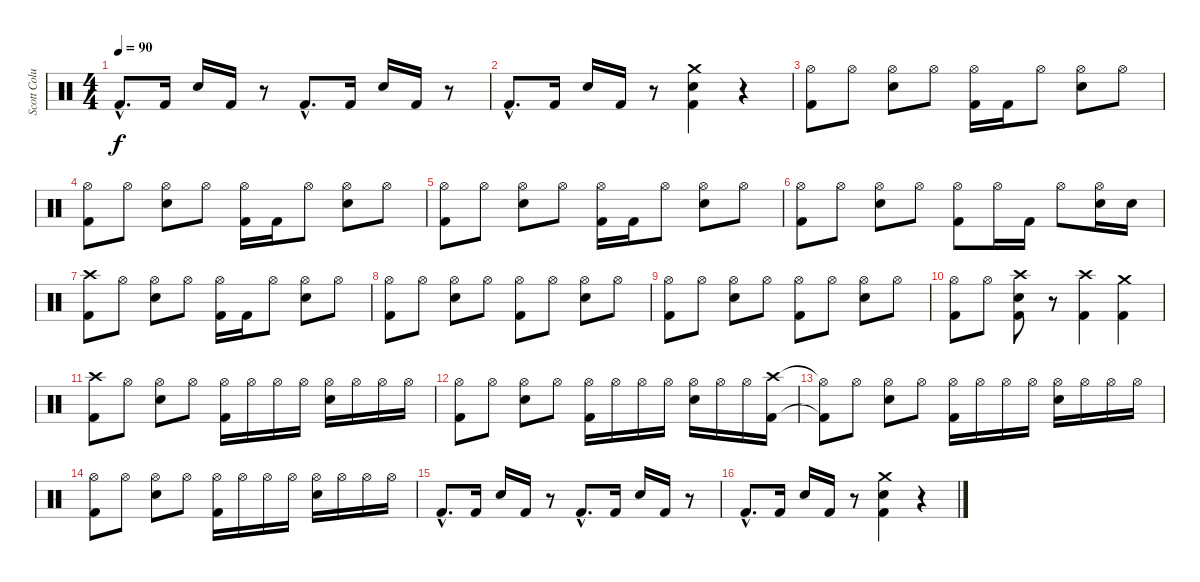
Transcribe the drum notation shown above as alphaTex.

\track ("Scott Columbus" "Scott Colu") {instrument percussion}
\staff {score}
\articulation defaults
\ts (4 4)
\tempo 90
\clef neutral
\ks c "Kick (hit) 2"{hac}.8{d dy f} "Kick (hit) 2".16 "Snare (hit) 2".16 "Kick (hit) 2".16
r.8 "Kick (hit) 2"{hac}.8{d} "Kick (hit) 2".16 "Snare (hit) 2".16 "Kick (hit) 2".16 r.8 |
"Kick (hit) 2"{hac}.8{d} "Kick (hit) 2".16 "Snare (hit) 2".16 "Kick (hit) 2".16 r.8 ("Crash medium (hit)" "Snare (hit) 2" "Kick (hit) 2").4 r.4 |
("Hi-Hat (open)" "Kick (hit) 2").8 "Hi-Hat (open)".8 ("Hi-Hat (open)" "Snare (hit) 2").8 "Hi-Hat (open)".8 ("Hi-Hat (open)" "Kick (hit) 2").16 "Kick (hit) 2".16 "Hi-Hat (open)".8 ("Hi-Hat (open)" "Snare (hit) 2").8 "Hi-Hat (open)".8 |
("Hi-Hat (open)" "Kick (hit) 2").8 "Hi-Hat (open)".8 ("Hi-Hat (open)" "Snare (hit) 2").8 "Hi-Hat (open)".8 ("Hi-Hat (open)" "Kick (hit) 2").16 "Kick (hit) 2".16 "Hi-Hat (open)".8 ("Hi-Hat (open)" "Snare (hit) 2").8 "Hi-Hat (open)".8 |
("Hi-Hat (open)" "Kick (hit) 2").8 "Hi-Hat (open)".8 ("Hi-Hat (open)" "Snare (hit) 2").8 "Hi-Hat (open)".8 ("Hi-Hat (open)" "Kick (hit) 2").16 "Kick (hit) 2".16 "Hi-Hat (open)".8 ("Hi-Hat (open)" "Snare (hit) 2").8 "Hi-Hat (open)".8 |
("Hi-Hat (open)" "Kick (hit) 2").8 "Hi-Hat (open)".8 ("Hi-Hat (open)" "Snare (hit) 2").8 "Hi-Hat (open)".8 ("Hi-Hat (open)" "Kick (hit) 2").8 "Hi-Hat (open)".16 "Kick (hit) 2".16 "Hi-Hat (open)".8 ("Hi-Hat (open)" "Snare (hit) 2").16 "Snare (hit) 2".16 |
("Crash high (hit)" "Kick (hit) 2").8 "Hi-Hat (open)".8 ("Hi-Hat (open)" "Snare (hit) 2").8 "Hi-Hat (open)".8 ("Hi-Hat (open)" "Kick (hit) 2").16 "Kick (hit) 2".16 "Hi-Hat (open)".8 ("Hi-Hat (open)" "Snare (hit) 2").8 "Hi-Hat (open)".8 |
("Hi-Hat (open)" "Kick (hit) 2").8 "Hi-Hat (open)".8 ("Hi-Hat (open)" "Snare (hit) 2").8 "Hi-Hat (open)".8 ("Hi-Hat (open)" "Kick (hit) 2").8 "Hi-Hat (open)".8 ("Hi-Hat (open)" "Snare (hit) 2").8 "Hi-Hat (open)".8 |
("Hi-Hat (open)" "Kick (hit) 2").8 "Hi-Hat (open)".8 ("Hi-Hat (open)" "Snare (hit) 2").8 "Hi-Hat (open)".8 ("Hi-Hat (open)" "Kick (hit) 2").8 "Hi-Hat (open)".8 ("Hi-Hat (open)" "Snare (hit) 2").8 "Hi-Hat (open)".8 |
("Hi-Hat (open)" "Kick (hit) 2").8 "Hi-Hat (open)".8 ("Crash high (hit)" "Snare (hit) 2" "Kick (hit) 2").8 r.8 ("Crash high (hit)" "Kick (hit) 2").4 ("Crash medium (hit)" "Kick (hit) 2").4 |
("Crash high (hit)" "Kick (hit) 2").8 "Hi-Hat (open)".8 ("Hi-Hat (open)" "Snare (hit) 2").8 "Hi-Hat (open)".8 ("Hi-Hat (open)" "Kick (hit) 2").16 "Hi-Hat (open)".16 "Hi-Hat (open)".16 "Hi-Hat (open)".16 ("Hi-Hat (open)" "Snare (hit) 2").16 "Hi-Hat (open)".16 "Hi-Hat (open)".16 "Hi-Hat (open)".16 |
("Hi-Hat (open)" "Kick (hit) 2").8 "Hi-Hat (open)".8 ("Hi-Hat (open)" "Snare (hit) 2").8 "Hi-Hat (open)".8 ("Hi-Hat (open)" "Kick (hit) 2").16 "Hi-Hat (open)".16 "Hi-Hat (open)".16 "Hi-Hat (open)".16 ("Hi-Hat (open)" "Snare (hit) 2").16 "Hi-Hat (open)".16 "Hi-Hat (open)".16 ("Crash high (hit)" "Kick (hit) 2").16 |
("Hi-Hat (open)"{t} "Kick (hit) 2"{t}).8 "Hi-Hat (open)".8 ("Hi-Hat (open)" "Snare (hit) 2").8 "Hi-Hat (open)".8 ("Hi-Hat (open)" "Kick (hit) 2").16 "Hi-Hat (open)".16 "Hi-Hat (open)".16 "Hi-Hat (open)".16 ("Hi-Hat (open)" "Snare (hit) 2").16 "Hi-Hat (open)".16 "Hi-Hat (open)".16 "Hi-Hat (open)".16 |
("Hi-Hat (open)" "Kick (hit) 2").8 "Hi-Hat (open)".8 ("Hi-Hat (open)" "Snare (hit) 2").8 "Hi-Hat (open)".8 ("Hi-Hat (open)" "Kick (hit) 2").16 "Hi-Hat (open)".16 "Hi-Hat (open)".16 "Hi-Hat (open)".16 ("Hi-Hat (open)" "Snare (hit) 2").16 "Hi-Hat (open)".16 "Hi-Hat (open)".16 "Hi-Hat (open)".16 |
"Kick (hit) 2"{hac}.8{d} "Kick (hit) 2".16 "Snare (hit) 2".16 "Kick (hit) 2".16 r.8 "Kick (hit) 2"{hac}.8{d} "Kick (hit) 2".16 "Snare (hit) 2".16 "Kick (hit) 2".16 r.8 |
"Kick (hit) 2"{hac}.8{d} "Kick (hit) 2".16 "Snare (hit) 2".16 "Kick (hit) 2".16 r.8 ("Crash medium (hit)" "Snare (hit) 2" "Kick (hit) 2").4 r.4
